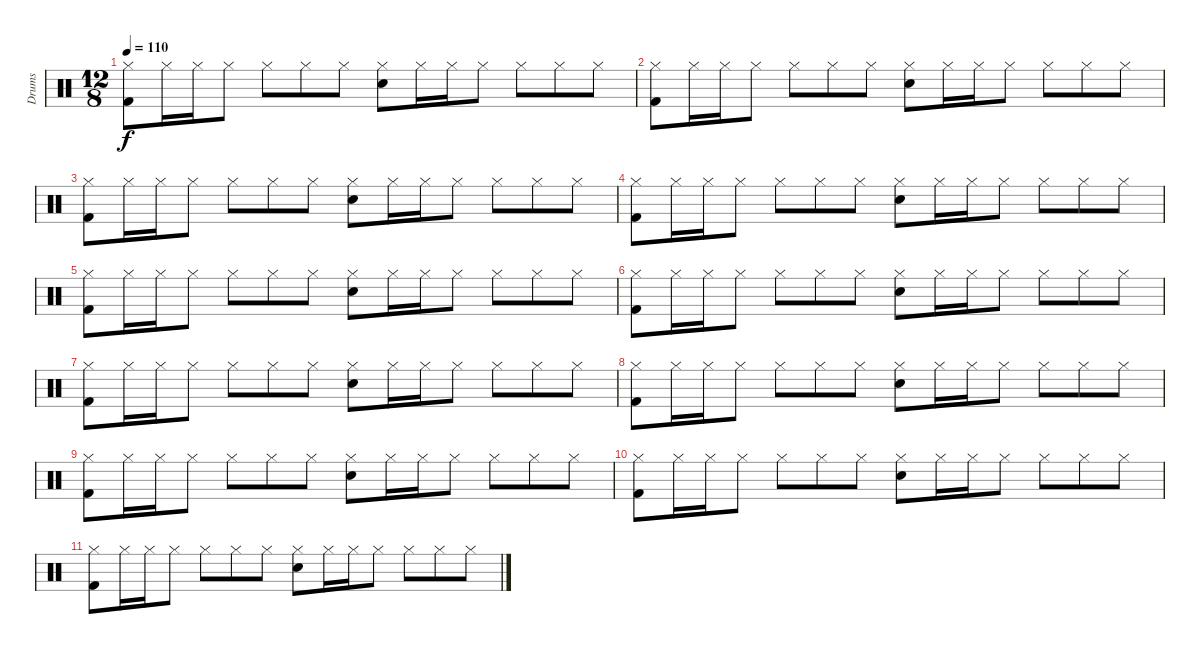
\track ("Drums" "Drums") {instrument percussion}
\staff {score}
\articulation defaults
\ts (12 8)
\tempo 110
\clef neutral
\ks c
("Hi-Hat (closed)" "Kick (hit) 2").8{dy f} "Hi-Hat (closed)".16 "Hi-Hat (closed)".16 "Hi-Hat (closed)".8 "Hi-Hat (closed)".8 "Hi-Hat (closed)".8 "Hi-Hat (closed)".8 ("Hi-Hat (closed)" "Snare (hit) 2").8 "Hi-Hat (closed)".16 "Hi-Hat (closed)".16 "Hi-Hat (closed)".8 "Hi-Hat (closed)".8 "Hi-Hat (closed)".8 "Hi-Hat (closed)".8 |
("Hi-Hat (closed)" "Kick (hit) 2").8 "Hi-Hat (closed)".16 "Hi-Hat (closed)".16 "Hi-Hat (closed)".8 "Hi-Hat (closed)".8 "Hi-Hat (closed)".8 "Hi-Hat (closed)".8 ("Hi-Hat (closed)" "Snare (hit) 2").8 "Hi-Hat (closed)".16 "Hi-Hat (closed)".16 "Hi-Hat (closed)".8 "Hi-Hat (closed)".8 "Hi-Hat (closed)".8 "Hi-Hat (closed)".8 |
("Hi-Hat (closed)" "Kick (hit) 2").8 "Hi-Hat (closed)".16 "Hi-Hat (closed)".16 "Hi-Hat (closed)".8 "Hi-Hat (closed)".8 "Hi-Hat (closed)".8 "Hi-Hat (closed)".8 ("Hi-Hat (closed)" "Snare (hit) 2").8 "Hi-Hat (closed)".16 "Hi-Hat (closed)".16 "Hi-Hat (closed)".8 "Hi-Hat (closed)".8 "Hi-Hat (closed)".8 "Hi-Hat (closed)".8 |
("Hi-Hat (closed)" "Kick (hit) 2").8 "Hi-Hat (closed)".16 "Hi-Hat (closed)".16 "Hi-Hat (closed)".8 "Hi-Hat (closed)".8 "Hi-Hat (closed)".8 "Hi-Hat (closed)".8 ("Hi-Hat (closed)" "Snare (hit) 2").8 "Hi-Hat (closed)".16 "Hi-Hat (closed)".16 "Hi-Hat (closed)".8 "Hi-Hat (closed)".8 "Hi-Hat (closed)".8 "Hi-Hat (closed)".8 |
("Hi-Hat (closed)" "Kick (hit) 2").8 "Hi-Hat (closed)".16 "Hi-Hat (closed)".16 "Hi-Hat (closed)".8 "Hi-Hat (closed)".8 "Hi-Hat (closed)".8 "Hi-Hat (closed)".8 ("Hi-Hat (closed)" "Snare (hit) 2").8 "Hi-Hat (closed)".16 "Hi-Hat (closed)".16 "Hi-Hat (closed)".8 "Hi-Hat (closed)".8 "Hi-Hat (closed)".8 "Hi-Hat (closed)".8 |
("Hi-Hat (closed)" "Kick (hit) 2").8 "Hi-Hat (closed)".16 "Hi-Hat (closed)".16 "Hi-Hat (closed)".8 "Hi-Hat (closed)".8 "Hi-Hat (closed)".8 "Hi-Hat (closed)".8 ("Hi-Hat (closed)" "Snare (hit) 2").8 "Hi-Hat (closed)".16 "Hi-Hat (closed)".16 "Hi-Hat (closed)".8 "Hi-Hat (closed)".8 "Hi-Hat (closed)".8 "Hi-Hat (closed)".8 |
("Hi-Hat (closed)" "Kick (hit) 2").8 "Hi-Hat (closed)".16 "Hi-Hat (closed)".16 "Hi-Hat (closed)".8 "Hi-Hat (closed)".8 "Hi-Hat (closed)".8 "Hi-Hat (closed)".8 ("Hi-Hat (closed)" "Snare (hit) 2").8 "Hi-Hat (closed)".16 "Hi-Hat (closed)".16 "Hi-Hat (closed)".8 "Hi-Hat (closed)".8 "Hi-Hat (closed)".8 "Hi-Hat (closed)".8 |
("Hi-Hat (closed)" "Kick (hit) 2").8 "Hi-Hat (closed)".16 "Hi-Hat (closed)".16 "Hi-Hat (closed)".8 "Hi-Hat (closed)".8 "Hi-Hat (closed)".8 "Hi-Hat (closed)".8 ("Hi-Hat (closed)" "Snare (hit) 2").8 "Hi-Hat (closed)".16 "Hi-Hat (closed)".16 "Hi-Hat (closed)".8 "Hi-Hat (closed)".8 "Hi-Hat (closed)".8 "Hi-Hat (closed)".8 |
("Hi-Hat (closed)" "Kick (hit) 2").8 "Hi-Hat (closed)".16 "Hi-Hat (closed)".16 "Hi-Hat (closed)".8 "Hi-Hat (closed)".8 "Hi-Hat (closed)".8 "Hi-Hat (closed)".8 ("Hi-Hat (closed)" "Snare (hit) 2").8 "Hi-Hat (closed)".16 "Hi-Hat (closed)".16 "Hi-Hat (closed)".8 "Hi-Hat (closed)".8 "Hi-Hat (closed)".8 "Hi-Hat (closed)".8 |
("Hi-Hat (closed)" "Kick (hit) 2").8 "Hi-Hat (closed)".16 "Hi-Hat (closed)".16 "Hi-Hat (closed)".8 "Hi-Hat (closed)".8 "Hi-Hat (closed)".8 "Hi-Hat (closed)".8 ("Hi-Hat (closed)" "Snare (hit) 2").8 "Hi-Hat (closed)".16 "Hi-Hat (closed)".16 "Hi-Hat (closed)".8 "Hi-Hat (closed)".8 "Hi-Hat (closed)".8 "Hi-Hat (closed)".8 |
("Hi-Hat (closed)" "Kick (hit) 2").8 "Hi-Hat (closed)".16 "Hi-Hat (closed)".16 "Hi-Hat (closed)".8 "Hi-Hat (closed)".8 "Hi-Hat (closed)".8 "Hi-Hat (closed)".8 ("Hi-Hat (closed)" "Snare (hit) 2").8 "Hi-Hat (closed)".16 "Hi-Hat (closed)".16 "Hi-Hat (closed)".8 "Hi-Hat (closed)".8 "Hi-Hat (closed)".8 "Hi-Hat (closed)".8
